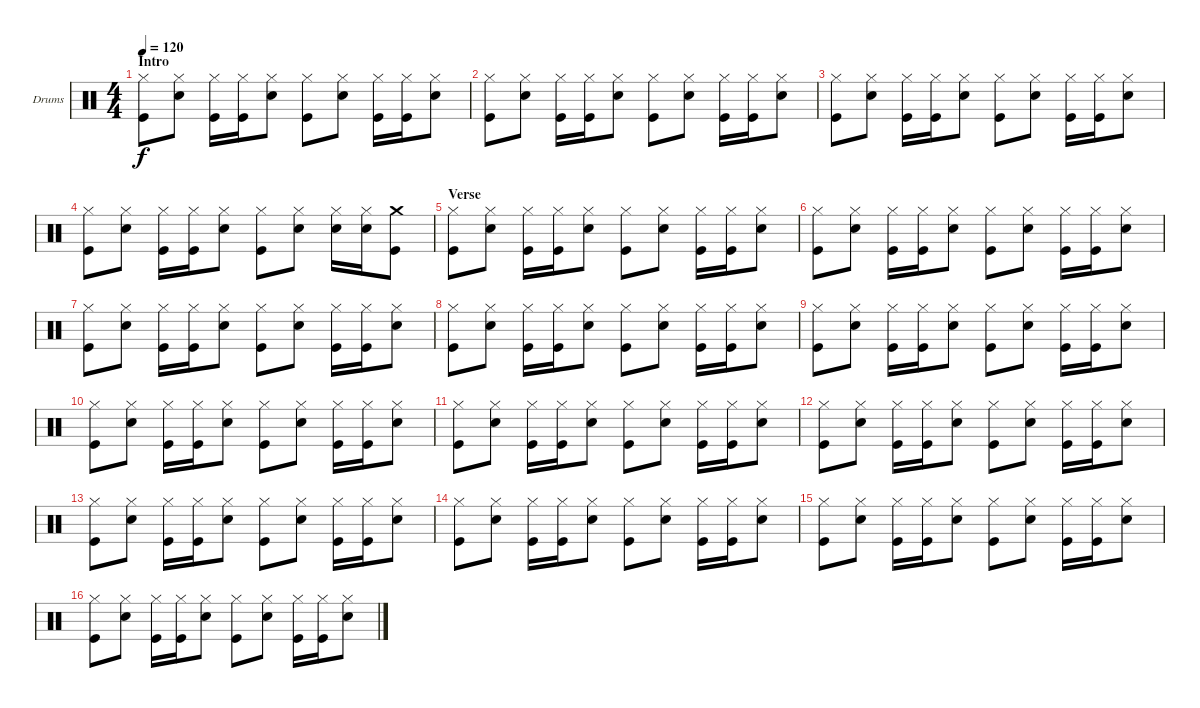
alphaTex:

\defaultSystemsLayout 4
\bracketExtendMode groupsimilarinstruments
\firstSystemTrackNameOrientation horizontal
\otherSystemsTrackNameOrientation horizontal
\track ("Drumkit" "Drums") {instrument percussion}
\staff {score}
\articulation defaults
\ts (4 4)
\section ("" "Intro")
\tempo 120
\clef neutral
\scale
0.333333
\ks c
("Hi-Hat (closed)" "Kick (hit)").8{dy f} ("Hi-Hat (closed)" "Snare (hit) 2").8 ("Hi-Hat (closed)" "Kick (hit)").16 ("Hi-Hat (closed)" "Kick (hit)").16 ("Hi-Hat (closed)" "Snare (hit) 2").8 ("Hi-Hat (closed)" "Kick (hit)").8 ("Hi-Hat (closed)" "Snare (hit) 2").8 ("Hi-Hat (closed)" "Kick (hit)").16 ("Hi-Hat (closed)" "Kick (hit)").16 ("Hi-Hat (closed)" "Snare (hit) 2").8 |
\scale
0.333333 ("Hi-Hat (closed)" "Kick (hit)").8 ("Hi-Hat (closed)" "Snare (hit) 2").8 ("Hi-Hat (closed)" "Kick (hit)").16 ("Hi-Hat (closed)" "Kick (hit)").16 ("Hi-Hat (closed)" "Snare (hit) 2").8 ("Hi-Hat (closed)" "Kick (hit)").8 ("Hi-Hat (closed)" "Snare (hit) 2").8 ("Hi-Hat (closed)" "Kick (hit)").16 ("Hi-Hat (closed)" "Kick (hit)").16 ("Hi-Hat (closed)" "Snare (hit) 2").8 |
\scale
0.333333 ("Hi-Hat (closed)" "Kick (hit)").8 ("Hi-Hat (closed)" "Snare (hit) 2").8 ("Hi-Hat (closed)" "Kick (hit)").16 ("Hi-Hat (closed)" "Kick (hit)").16 ("Hi-Hat (closed)" "Snare (hit) 2").8 ("Hi-Hat (closed)" "Kick (hit)").8 ("Hi-Hat (closed)" "Snare (hit) 2").8 ("Hi-Hat (closed)" "Kick (hit)").16 ("Hi-Hat (closed)" "Kick (hit)").16 ("Hi-Hat (closed)" "Snare (hit) 2").8 |
\scale
0.333333 ("Hi-Hat (closed)" "Kick (hit)").8 ("Hi-Hat (closed)" "Snare (hit) 2").8 ("Hi-Hat (closed)" "Kick (hit)").16 ("Hi-Hat (closed)" "Kick (hit)").16 ("Hi-Hat (closed)" "Snare (hit) 2").8 ("Hi-Hat (closed)" "Kick (hit)").8 ("Hi-Hat (closed)" "Snare (hit) 2").8 ("Hi-Hat (closed)" "Snare (hit) 2").16 ("Hi-Hat (closed)" "Snare (hit) 2").16 ("Crash medium (hit)" "Kick (hit)").8 |
\section ("" "Verse")
\scale
0.333333 ("Hi-Hat (closed)" "Kick (hit)").8 ("Hi-Hat (closed)" "Snare (hit) 2").8 ("Hi-Hat (closed)" "Kick (hit)").16 ("Hi-Hat (closed)" "Kick (hit)").16 ("Hi-Hat (closed)" "Snare (hit) 2").8 ("Hi-Hat (closed)" "Kick (hit)").8 ("Hi-Hat (closed)" "Snare (hit) 2").8 ("Hi-Hat (closed)" "Kick (hit)").16 ("Hi-Hat (closed)" "Kick (hit)").16 ("Hi-Hat (closed)" "Snare (hit) 2").8 |
\scale
0.333333 ("Hi-Hat (closed)" "Kick (hit)").8 ("Hi-Hat (closed)" "Snare (hit) 2").8 ("Hi-Hat (closed)" "Kick (hit)").16 ("Hi-Hat (closed)" "Kick (hit)").16 ("Hi-Hat (closed)" "Snare (hit) 2").8 ("Hi-Hat (closed)" "Kick (hit)").8 ("Hi-Hat (closed)" "Snare (hit) 2").8 ("Hi-Hat (closed)" "Kick (hit)").16 ("Hi-Hat (closed)" "Kick (hit)").16 ("Hi-Hat (closed)" "Snare (hit) 2").8 |
\scale
0.333333 ("Hi-Hat (closed)" "Kick (hit)").8 ("Hi-Hat (closed)" "Snare (hit) 2").8 ("Hi-Hat (closed)" "Kick (hit)").16 ("Hi-Hat (closed)" "Kick (hit)").16 ("Hi-Hat (closed)" "Snare (hit) 2").8 ("Hi-Hat (closed)" "Kick (hit)").8 ("Hi-Hat (closed)" "Snare (hit) 2").8 ("Hi-Hat (closed)" "Kick (hit)").16 ("Hi-Hat (closed)" "Kick (hit)").16 ("Hi-Hat (closed)" "Snare (hit) 2").8 |
\scale
0.333333 ("Hi-Hat (closed)" "Kick (hit)").8 ("Hi-Hat (closed)" "Snare (hit) 2").8 ("Hi-Hat (closed)" "Kick (hit)").16 ("Hi-Hat (closed)" "Kick (hit)").16 ("Hi-Hat (closed)" "Snare (hit) 2").8 ("Hi-Hat (closed)" "Kick (hit)").8 ("Hi-Hat (closed)" "Snare (hit) 2").8 ("Hi-Hat (closed)" "Kick (hit)").16 ("Hi-Hat (closed)" "Kick (hit)").16 ("Hi-Hat (closed)" "Snare (hit) 2").8 |
\scale
0.333333 ("Hi-Hat (closed)" "Kick (hit)").8 ("Hi-Hat (closed)" "Snare (hit) 2").8 ("Hi-Hat (closed)" "Kick (hit)").16 ("Hi-Hat (closed)" "Kick (hit)").16 ("Hi-Hat (closed)" "Snare (hit) 2").8 ("Hi-Hat (closed)" "Kick (hit)").8 ("Hi-Hat (closed)" "Snare (hit) 2").8 ("Hi-Hat (closed)" "Kick (hit)").16 ("Hi-Hat (closed)" "Kick (hit)").16 ("Hi-Hat (closed)" "Snare (hit) 2").8 |
\scale
0.333333 ("Hi-Hat (closed)" "Kick (hit)").8 ("Hi-Hat (closed)" "Snare (hit) 2").8 ("Hi-Hat (closed)" "Kick (hit)").16 ("Hi-Hat (closed)" "Kick (hit)").16 ("Hi-Hat (closed)" "Snare (hit) 2").8 ("Hi-Hat (closed)" "Kick (hit)").8 ("Hi-Hat (closed)" "Snare (hit) 2").8 ("Hi-Hat (closed)" "Kick (hit)").16 ("Hi-Hat (closed)" "Kick (hit)").16 ("Hi-Hat (closed)" "Snare (hit) 2").8 |
\scale
0.333333 ("Hi-Hat (closed)" "Kick (hit)").8 ("Hi-Hat (closed)" "Snare (hit) 2").8 ("Hi-Hat (closed)" "Kick (hit)").16 ("Hi-Hat (closed)" "Kick (hit)").16 ("Hi-Hat (closed)" "Snare (hit) 2").8 ("Hi-Hat (closed)" "Kick (hit)").8 ("Hi-Hat (closed)" "Snare (hit) 2").8 ("Hi-Hat (closed)" "Kick (hit)").16 ("Hi-Hat (closed)" "Kick (hit)").16 ("Hi-Hat (closed)" "Snare (hit) 2").8 |
\scale
0.333333 ("Hi-Hat (closed)" "Kick (hit)").8 ("Hi-Hat (closed)" "Snare (hit) 2").8 ("Hi-Hat (closed)" "Kick (hit)").16 ("Hi-Hat (closed)" "Kick (hit)").16 ("Hi-Hat (closed)" "Snare (hit) 2").8 ("Hi-Hat (closed)" "Kick (hit)").8 ("Hi-Hat (closed)" "Snare (hit) 2").8 ("Hi-Hat (closed)" "Kick (hit)").16 ("Hi-Hat (closed)" "Kick (hit)").16 ("Hi-Hat (closed)" "Snare (hit) 2").8 |
\scale
0.333333 ("Hi-Hat (closed)" "Kick (hit)").8 ("Hi-Hat (closed)" "Snare (hit) 2").8 ("Hi-Hat (closed)" "Kick (hit)").16 ("Hi-Hat (closed)" "Kick (hit)").16 ("Hi-Hat (closed)" "Snare (hit) 2").8 ("Hi-Hat (closed)" "Kick (hit)").8 ("Hi-Hat (closed)" "Snare (hit) 2").8 ("Hi-Hat (closed)" "Kick (hit)").16 ("Hi-Hat (closed)" "Kick (hit)").16 ("Hi-Hat (closed)" "Snare (hit) 2").8 |
\scale
0.333333 ("Hi-Hat (closed)" "Kick (hit)").8 ("Hi-Hat (closed)" "Snare (hit) 2").8 ("Hi-Hat (closed)" "Kick (hit)").16 ("Hi-Hat (closed)" "Kick (hit)").16 ("Hi-Hat (closed)" "Snare (hit) 2").8 ("Hi-Hat (closed)" "Kick (hit)").8 ("Hi-Hat (closed)" "Snare (hit) 2").8 ("Hi-Hat (closed)" "Kick (hit)").16 ("Hi-Hat (closed)" "Kick (hit)").16 ("Hi-Hat (closed)" "Snare (hit) 2").8 |
\scale
0.333333 ("Hi-Hat (closed)" "Kick (hit)").8 ("Hi-Hat (closed)" "Snare (hit) 2").8 ("Hi-Hat (closed)" "Kick (hit)").16 ("Hi-Hat (closed)" "Kick (hit)").16 ("Hi-Hat (closed)" "Snare (hit) 2").8 ("Hi-Hat (closed)" "Kick (hit)").8 ("Hi-Hat (closed)" "Snare (hit) 2").8 ("Hi-Hat (closed)" "Kick (hit)").16 ("Hi-Hat (closed)" "Kick (hit)").16 ("Hi-Hat (closed)" "Snare (hit) 2").8 |
\scale
0.333333 ("Hi-Hat (closed)" "Kick (hit)").8 ("Hi-Hat (closed)" "Snare (hit) 2").8 ("Hi-Hat (closed)" "Kick (hit)").16 ("Hi-Hat (closed)" "Kick (hit)").16 ("Hi-Hat (closed)" "Snare (hit) 2").8 ("Hi-Hat (closed)" "Kick (hit)").8 ("Hi-Hat (closed)" "Snare (hit) 2").8 ("Hi-Hat (closed)" "Kick (hit)").16 ("Hi-Hat (closed)" "Kick (hit)").16 ("Hi-Hat (closed)" "Snare (hit) 2").8
